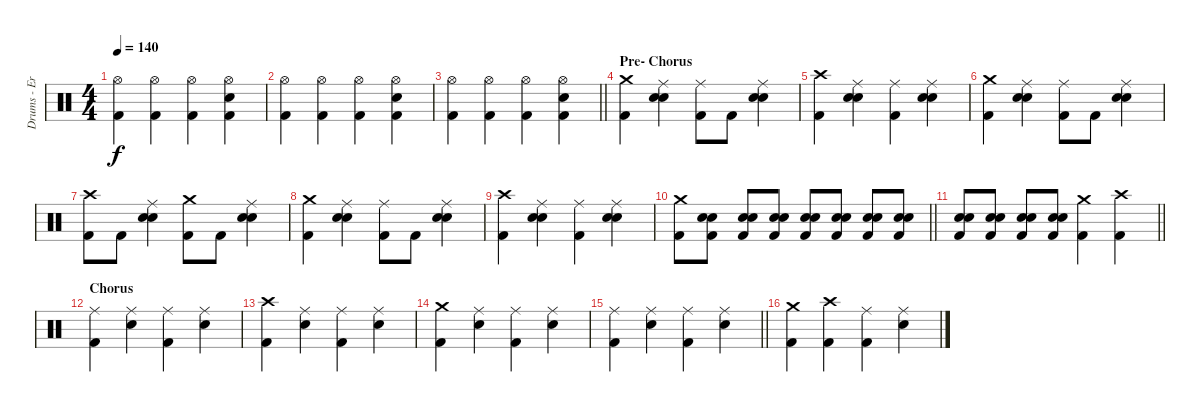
\track ("Drums - Eric Young" "Drums - Er") {instrument percussion}
\staff {score}
\articulation defaults
\ts (4 4)
\tempo 140
\clef neutral
\ks c
("Hi-Hat (open)" "Kick (hit) 2").4{dy f} ("Hi-Hat (open)" "Kick (hit) 2").4 ("Hi-Hat (open)" "Kick (hit) 2").4 ("Hi-Hat (open)" "Electric Snare (hit)" "Kick (hit) 2").4 |
("Hi-Hat (open)" "Kick (hit) 2").4 ("Hi-Hat (open)" "Kick (hit) 2").4 ("Hi-Hat (open)" "Kick (hit) 2").4 ("Hi-Hat (open)" "Electric Snare (hit)" "Kick (hit) 2").4 |
\barLineRight lightlight
("Hi-Hat (open)" "Kick (hit) 2").4 ("Hi-Hat (open)" "Kick (hit) 2").4 ("Hi-Hat (open)" "Kick (hit) 2").4 ("Hi-Hat (open)" "Electric Snare (hit)" "Kick (hit) 2").4 |
\section ("" "Pre- Chorus")
("Crash medium (hit)" "Kick (hit) 2").4 ("Ride (middle)" "Electric Snare (hit)" "Snare (hit) 2").4 ("Ride (middle)" "Kick (hit) 2").8 "Kick (hit) 2".8 ("Ride (middle)" "Electric Snare (hit)" "Snare (hit) 2").4 |
("Crash high (hit)" "Kick (hit) 2").4 ("Ride (middle)" "Electric Snare (hit)" "Snare (hit) 2").4 ("Ride (middle)" "Kick (hit) 2").4 ("Ride (middle)" "Electric Snare (hit)" "Snare (hit) 2").4 |
("Crash medium (hit)" "Kick (hit) 2").4 ("Ride (middle)" "Electric Snare (hit)" "Snare (hit) 2").4 ("Ride (middle)" "Kick (hit) 2").8 "Kick (hit) 2".8 ("Ride (middle)" "Electric Snare (hit)" "Snare (hit) 2").4 |
("Crash high (hit)" "Kick (hit) 2").8 "Kick (hit) 2".8 ("Ride (middle)" "Electric Snare (hit)" "Snare (hit) 2").4 ("Crash medium (hit)" "Kick (hit) 2").8 "Kick (hit) 2".8 ("Ride (middle)" "Electric Snare (hit)" "Snare (hit) 2").4 |
("Crash medium (hit)" "Kick (hit) 2").4 ("Ride (middle)" "Electric Snare (hit)" "Snare (hit) 2").4 ("Ride (middle)" "Kick (hit) 2").8 "Kick (hit) 2".8 ("Ride (middle)" "Electric Snare (hit)" "Snare (hit) 2").4 |
("Crash high (hit)" "Kick (hit) 2").4 ("Ride (middle)" "Electric Snare (hit)" "Snare (hit) 2").4 ("Ride (middle)" "Kick (hit) 2").4 ("Ride (middle)" "Electric Snare (hit)" "Snare (hit) 2").4 |
\barLineRight lightlight
("Crash medium (hit)" "Kick (hit) 2").8 ("Electric Snare (hit)" "Snare (hit) 2" "Kick (hit) 2").8 ("Electric Snare (hit)" "Snare (hit) 2" "Kick (hit) 2").8 ("Electric Snare (hit)" "Snare (hit) 2" "Kick (hit) 2").8 ("Electric Snare (hit)" "Snare (hit) 2" "Kick (hit) 2").8 ("Electric Snare (hit)" "Snare (hit) 2" "Kick (hit) 2").8 ("Electric Snare (hit)" "Snare (hit) 2" "Kick (hit) 2").8 ("Electric Snare (hit)" "Snare (hit) 2" "Kick (hit) 2").8 |
\barLineRight lightlight
("Electric Snare (hit)" "Snare (hit) 2" "Kick (hit) 2").8 ("Electric Snare (hit)" "Snare (hit) 2" "Kick (hit) 2").8 ("Electric Snare (hit)" "Snare (hit) 2" "Kick (hit) 2").8 ("Electric Snare (hit)" "Snare (hit) 2" "Kick (hit) 2").8 ("Crash medium (hit)" "Kick (hit) 2").4 ("Crash high (hit)" "Kick (hit) 2").4 |
\section ("" "Chorus")
("Ride (middle)" "Kick (hit) 2").4 ("Ride (middle)" "Electric Snare (hit)").4 ("Ride (middle)" "Kick (hit) 2").4 ("Ride (middle)" "Electric Snare (hit)").4 |
("Crash high (hit)" "Kick (hit) 2").4 ("Ride (middle)" "Electric Snare (hit)").4 ("Ride (middle)" "Kick (hit) 2").4 ("Ride (middle)" "Electric Snare (hit)").4 |
("Crash medium (hit)" "Kick (hit) 2").4 ("Ride (middle)" "Electric Snare (hit)").4 ("Ride (middle)" "Kick (hit) 2").4 ("Ride (middle)" "Electric Snare (hit)").4 |
\barLineRight lightlight
("Ride (middle)" "Kick (hit) 2").4 ("Ride (middle)" "Electric Snare (hit)").4 ("Ride (middle)" "Kick (hit) 2").4 ("Ride (middle)" "Electric Snare (hit)").4 |
("Crash medium (hit)" "Kick (hit) 2").4 ("Crash high (hit)" "Kick (hit) 2").4 ("Ride (middle)" "Kick (hit) 2").4 ("Ride (middle)" "Electric Snare (hit)").4
